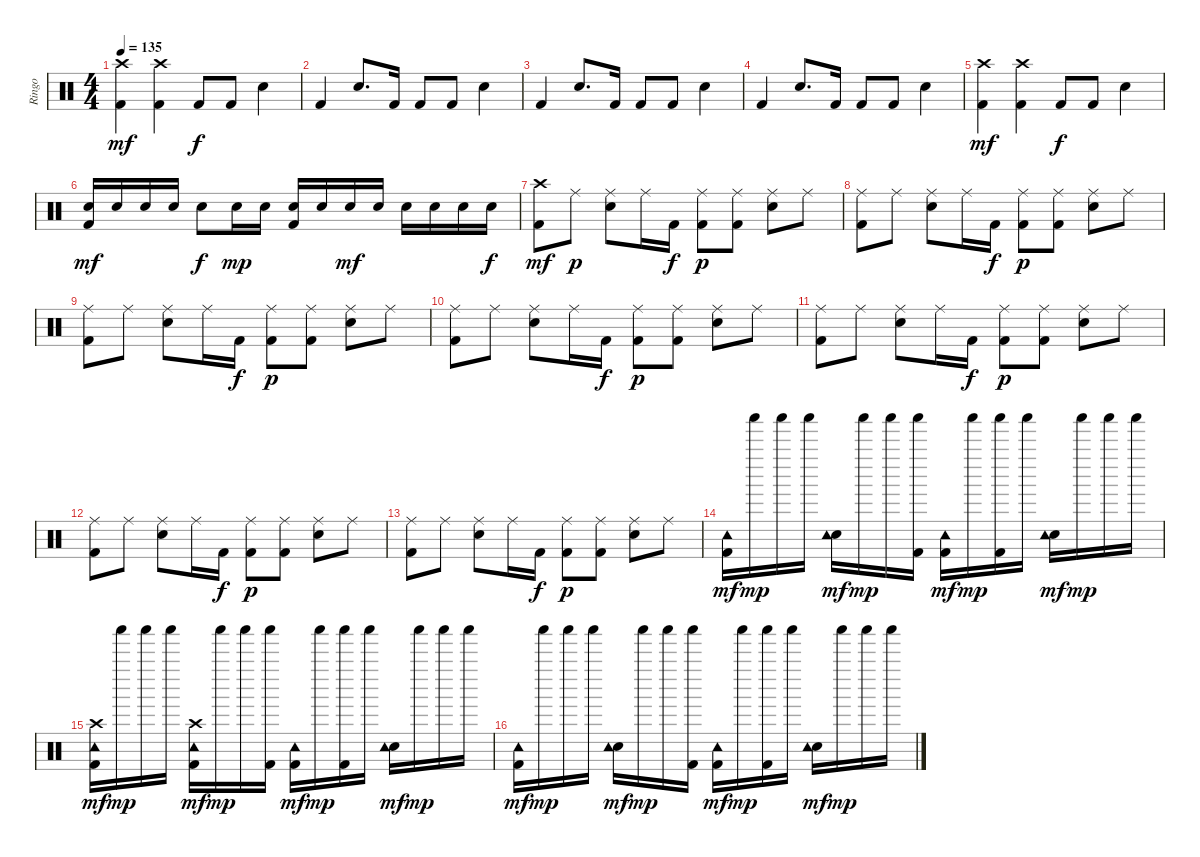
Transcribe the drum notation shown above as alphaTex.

\track ("Ringo" "Ringo") {instrument percussion}
\staff {score}
\articulation defaults
\ts (4 4)
\tempo 135
\clef neutral
\ks c
("Crash high (hit)" "Kick (hit) 2").4{dy mf} ("Crash high (hit)" "Kick (hit) 2").4 "Kick (hit) 2".8{dy f} "Kick (hit) 2".8 "Electric Snare (hit)".4 |
"Kick (hit) 2".4 "Electric Snare (hit)".8{d} "Kick (hit) 2".16 "Kick (hit) 2".8 "Kick (hit) 2".8 "Electric Snare (hit)".4 |
"Kick (hit) 2".4 "Electric Snare (hit)".8{d} "Kick (hit) 2".16 "Kick (hit) 2".8 "Kick (hit) 2".8 "Electric Snare (hit)".4 |
"Kick (hit) 2".4 "Electric Snare (hit)".8{d} "Kick (hit) 2".16 "Kick (hit) 2".8 "Kick (hit) 2".8 "Electric Snare (hit)".4 |
("Crash high (hit)" "Kick (hit) 2").4{dy mf} ("Crash high (hit)" "Kick (hit) 2").4 "Kick (hit) 2".8{dy f} "Kick (hit) 2".8 "Electric Snare (hit)".4 |
("Electric Snare (hit)" "Kick (hit) 2").16{dy mf} "Electric Snare (hit)".16 "Electric Snare (hit)".16 "Electric Snare (hit)".16 "Electric Snare (hit)".8{dy f} "Electric Snare (hit)".16{dy mp} "Electric Snare (hit)".16 ("Electric Snare (hit)" "Kick (hit) 2").16 "Electric Snare (hit)".16 "Electric Snare (hit)".16{dy mf} "Electric Snare (hit)".16 "Electric Snare (hit)".16 "Electric Snare (hit)".16 "Electric Snare (hit)".16 "Electric Snare (hit)".16{dy f} |
("Crash high (hit)" "Kick (hit) 2").8{dy mf} "Ride (middle)".8{dy p} ("Ride (middle)" "Electric Snare (hit)").8 "Ride (middle)".16 "Kick (hit) 2".16{dy f} ("Ride (middle)" "Kick (hit) 2").8{dy p} ("Ride (middle)" "Kick (hit) 2").8 ("Ride (middle)" "Electric Snare (hit)").8 "Ride (middle)".8 |
("Ride (middle)" "Kick (hit) 2").8 "Ride (middle)".8 ("Ride (middle)" "Electric Snare (hit)").8 "Ride (middle)".16 "Kick (hit) 2".16{dy f} ("Ride (middle)" "Kick (hit) 2").8{dy p} ("Ride (middle)" "Kick (hit) 2").8 ("Ride (middle)" "Electric Snare (hit)").8 "Ride (middle)".8 |
("Ride (middle)" "Kick (hit) 2").8 "Ride (middle)".8 ("Ride (middle)" "Electric Snare (hit)").8 "Ride (middle)".16 "Kick (hit) 2".16{dy f} ("Ride (middle)" "Kick (hit) 2").8{dy p} ("Ride (middle)" "Kick (hit) 2").8 ("Ride (middle)" "Electric Snare (hit)").8 "Ride (middle)".8 |
("Ride (middle)" "Kick (hit) 2").8 "Ride (middle)".8 ("Ride (middle)" "Electric Snare (hit)").8 "Ride (middle)".16 "Kick (hit) 2".16{dy f} ("Ride (middle)" "Kick (hit) 2").8{dy p} ("Ride (middle)" "Kick (hit) 2").8 ("Ride (middle)" "Electric Snare (hit)").8 "Ride (middle)".8 |
("Ride (middle)" "Kick (hit) 2").8 "Ride (middle)".8 ("Ride (middle)" "Electric Snare (hit)").8 "Ride (middle)".16 "Kick (hit) 2".16{dy f} ("Ride (middle)" "Kick (hit) 2").8{dy p} ("Ride (middle)" "Kick (hit) 2").8 ("Ride (middle)" "Electric Snare (hit)").8 "Ride (middle)".8 |
("Ride (middle)" "Kick (hit) 2").8 "Ride (middle)".8 ("Ride (middle)" "Electric Snare (hit)").8 "Ride (middle)".16 "Kick (hit) 2".16{dy f} ("Ride (middle)" "Kick (hit) 2").8{dy p} ("Ride (middle)" "Kick (hit) 2").8 ("Ride (middle)" "Electric Snare (hit)").8 "Ride (middle)".8 |
("Ride (middle)" "Kick (hit) 2").8 "Ride (middle)".8 ("Ride (middle)" "Electric Snare (hit)").8 "Ride (middle)".16 "Kick (hit) 2".16{dy f} ("Ride (middle)" "Kick (hit) 2").8{dy p} ("Ride (middle)" "Kick (hit) 2").8 ("Ride (middle)" "Electric Snare (hit)").8 "Ride (middle)".8 |
("Kick (hit) 2" "Tambourine (hit)").16{dy mf} "Shaker (hit)".16{dy mp} "Shaker (hit)".16 "Shaker (hit)".16 ("Electric Snare (hit)" "Tambourine (hit)").16{dy mf} "Shaker (hit)".16{dy mp} "Shaker (hit)".16 ("Kick (hit) 2" "Shaker (hit)").16 ("Kick (hit) 2" "Tambourine (hit)").16{dy mf} "Shaker (hit)".16{dy mp} ("Kick (hit) 2" "Shaker (hit)").16 "Shaker (hit)".16 ("Electric Snare (hit)" "Tambourine (hit)").16{dy mf} "Shaker (hit)".16{dy mp} "Shaker (hit)".16 "Shaker (hit)".16 |
("Kick (hit) 2" "Tambourine (hit)" "Crash high (hit)").16{dy mf} "Shaker (hit)".16{dy mp} "Shaker (hit)".16 "Shaker (hit)".16 ("Kick (hit) 2" "Tambourine (hit)" "Crash high (hit)").16{dy mf} "Shaker (hit)".16{dy mp} "Shaker (hit)".16 ("Kick (hit) 2" "Shaker (hit)").16 ("Kick (hit) 2" "Tambourine (hit)").16{dy mf} "Shaker (hit)".16{dy mp} ("Kick (hit) 2" "Shaker (hit)").16 "Shaker (hit)".16 ("Electric Snare (hit)" "Tambourine (hit)").16{dy mf} "Shaker (hit)".16{dy mp} "Shaker (hit)".16 "Shaker (hit)".16 |
("Kick (hit) 2" "Tambourine (hit)").16{dy mf} "Shaker (hit)".16{dy mp} "Shaker (hit)".16 "Shaker (hit)".16 ("Electric Snare (hit)" "Tambourine (hit)").16{dy mf} "Shaker (hit)".16{dy mp} "Shaker (hit)".16 ("Kick (hit) 2" "Shaker (hit)").16 ("Kick (hit) 2" "Tambourine (hit)").16{dy mf} "Shaker (hit)".16{dy mp} ("Kick (hit) 2" "Shaker (hit)").16 "Shaker (hit)".16 ("Electric Snare (hit)" "Tambourine (hit)").16{dy mf} "Shaker (hit)".16{dy mp} "Shaker (hit)".16 "Shaker (hit)".16
